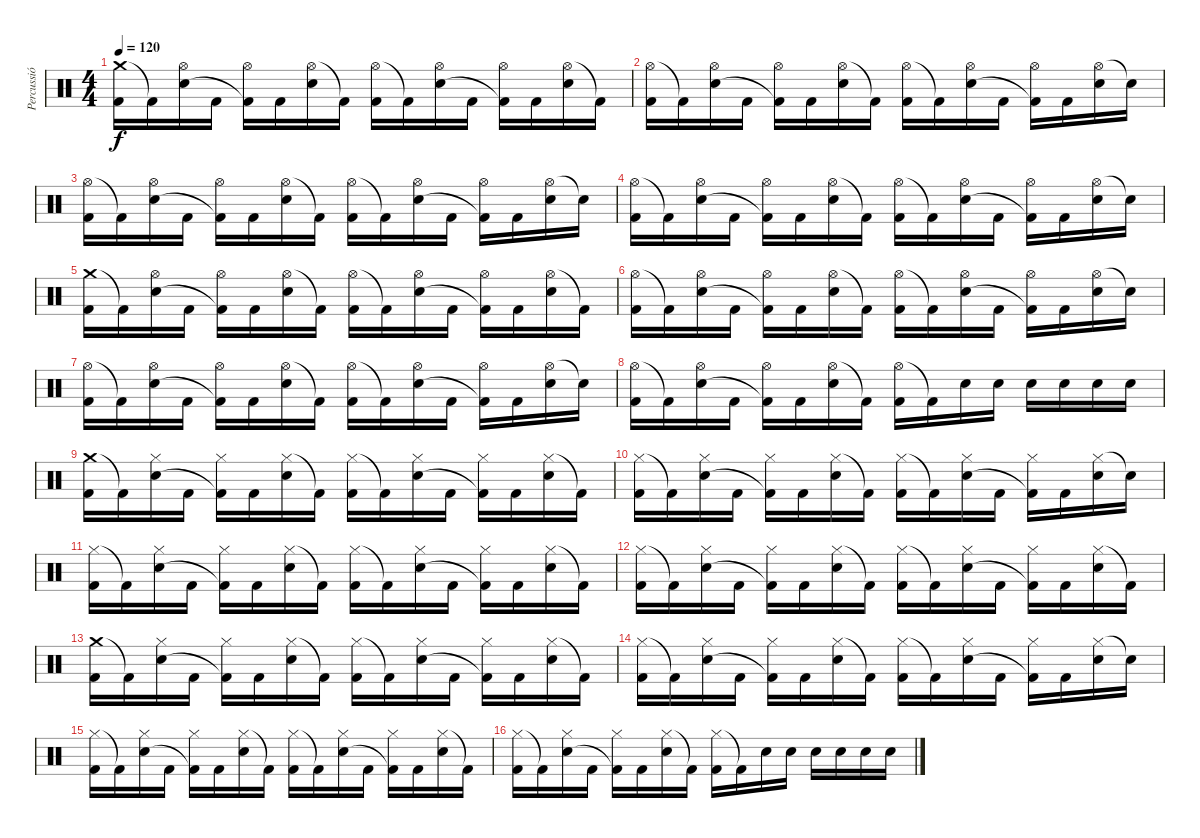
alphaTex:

\track ("Percussió" "Percussió") {instrument percussion}
\staff {score}
\articulation defaults
\ts (4 4)
\tempo 120
\clef neutral
\ks c
("Crash medium (hit)" "Kick (hit) 2").16{dy f} "Kick (hit) 2"{t}.16 ("Hi-Hat (open)" "Electric Snare (hit)").16 "Kick (hit) 2".16 ("Hi-Hat (open)" "Kick (hit) 2"{t}).16 "Kick (hit) 2".16 ("Hi-Hat (open)" "Electric Snare (hit)").16 "Kick (hit) 2"{t}.16 ("Hi-Hat (open)" "Kick (hit) 2").16 "Kick (hit) 2"{t}.16 ("Hi-Hat (open)" "Electric Snare (hit)").16 "Kick (hit) 2".16 ("Hi-Hat (open)" "Kick (hit) 2"{t}).16 "Kick (hit) 2".16 ("Hi-Hat (open)" "Electric Snare (hit)").16 "Kick (hit) 2"{t}.16 |
("Hi-Hat (open)" "Kick (hit) 2").16 "Kick (hit) 2"{t}.16 ("Hi-Hat (open)" "Electric Snare (hit)").16 "Kick (hit) 2".16 ("Hi-Hat (open)" "Kick (hit) 2"{t}).16 "Kick (hit) 2".16 ("Hi-Hat (open)" "Electric Snare (hit)").16 "Kick (hit) 2"{t}.16 ("Hi-Hat (open)" "Kick (hit) 2").16 "Kick (hit) 2"{t}.16 ("Hi-Hat (open)" "Electric Snare (hit)").16 "Kick (hit) 2".16 ("Hi-Hat (open)" "Kick (hit) 2"{t}).16 "Kick (hit) 2".16 ("Hi-Hat (open)" "Electric Snare (hit)").16 "Snare (hit)"{t}.16 |
("Hi-Hat (open)" "Kick (hit) 2").16 "Kick (hit) 2"{t}.16 ("Hi-Hat (open)" "Electric Snare (hit)").16 "Kick (hit) 2".16 ("Hi-Hat (open)" "Kick (hit) 2"{t}).16 "Kick (hit) 2".16 ("Hi-Hat (open)" "Electric Snare (hit)").16 "Kick (hit) 2"{t}.16 ("Hi-Hat (open)" "Kick (hit) 2").16 "Kick (hit) 2"{t}.16 ("Hi-Hat (open)" "Electric Snare (hit)").16 "Kick (hit) 2".16 ("Hi-Hat (open)" "Kick (hit) 2"{t}).16 "Kick (hit) 2".16 ("Hi-Hat (open)" "Electric Snare (hit)").16 "Snare (hit)"{t}.16 |
("Hi-Hat (open)" "Kick (hit) 2").16 "Kick (hit) 2"{t}.16 ("Hi-Hat (open)" "Electric Snare (hit)").16 "Kick (hit) 2".16 ("Hi-Hat (open)" "Kick (hit) 2"{t}).16 "Kick (hit) 2".16 ("Hi-Hat (open)" "Electric Snare (hit)").16 "Kick (hit) 2"{t}.16 ("Hi-Hat (open)" "Kick (hit) 2").16 "Kick (hit) 2"{t}.16 ("Hi-Hat (open)" "Electric Snare (hit)").16 "Kick (hit) 2".16 ("Hi-Hat (open)" "Kick (hit) 2"{t}).16 "Kick (hit) 2".16 ("Hi-Hat (open)" "Electric Snare (hit)").16 "Snare (hit)"{t}.16 |
("Crash medium (hit)" "Kick (hit) 2").16 "Kick (hit) 2"{t}.16 ("Hi-Hat (open)" "Electric Snare (hit)").16 "Kick (hit) 2".16 ("Hi-Hat (open)" "Kick (hit) 2"{t}).16 "Kick (hit) 2".16 ("Hi-Hat (open)" "Electric Snare (hit)").16 "Kick (hit) 2"{t}.16 ("Hi-Hat (open)" "Kick (hit) 2").16 "Kick (hit) 2"{t}.16 ("Hi-Hat (open)" "Electric Snare (hit)").16 "Kick (hit) 2".16 ("Hi-Hat (open)" "Kick (hit) 2"{t}).16 "Kick (hit) 2".16 ("Hi-Hat (open)" "Electric Snare (hit)").16 "Kick (hit) 2"{t}.16 |
("Hi-Hat (open)" "Kick (hit) 2").16 "Kick (hit) 2"{t}.16 ("Hi-Hat (open)" "Electric Snare (hit)").16 "Kick (hit) 2".16 ("Hi-Hat (open)" "Kick (hit) 2"{t}).16 "Kick (hit) 2".16 ("Hi-Hat (open)" "Electric Snare (hit)").16 "Kick (hit) 2"{t}.16 ("Hi-Hat (open)" "Kick (hit) 2").16 "Kick (hit) 2"{t}.16 ("Hi-Hat (open)" "Electric Snare (hit)").16 "Kick (hit) 2".16 ("Hi-Hat (open)" "Kick (hit) 2"{t}).16 "Kick (hit) 2".16 ("Hi-Hat (open)" "Electric Snare (hit)").16 "Snare (hit)"{t}.16 |
("Hi-Hat (open)" "Kick (hit) 2").16 "Kick (hit) 2"{t}.16 ("Hi-Hat (open)" "Electric Snare (hit)").16 "Kick (hit) 2".16 ("Hi-Hat (open)" "Kick (hit) 2"{t}).16 "Kick (hit) 2".16 ("Hi-Hat (open)" "Electric Snare (hit)").16 "Kick (hit) 2"{t}.16 ("Hi-Hat (open)" "Kick (hit) 2").16 "Kick (hit) 2"{t}.16 ("Hi-Hat (open)" "Electric Snare (hit)").16 "Kick (hit) 2".16 ("Hi-Hat (open)" "Kick (hit) 2"{t}).16 "Kick (hit) 2".16 ("Hi-Hat (open)" "Electric Snare (hit)").16 "Snare (hit)"{t}.16 |
("Hi-Hat (open)" "Kick (hit) 2").16 "Kick (hit) 2"{t}.16 ("Hi-Hat (open)" "Electric Snare (hit)").16 "Kick (hit) 2".16 ("Hi-Hat (open)" "Kick (hit) 2"{t}).16 "Kick (hit) 2".16 ("Hi-Hat (open)" "Electric Snare (hit)").16 "Kick (hit) 2"{t}.16 ("Hi-Hat (open)" "Kick (hit) 2").16 "Kick (hit) 2"{t}.16 "Electric Snare (hit)".16 "Electric Snare (hit)".16 "Electric Snare (hit)".16 "Electric Snare (hit)".16 "Electric Snare (hit)".16 "Electric Snare (hit)".16 |
("Crash medium (hit)" "Kick (hit) 2").16 "Kick (hit) 2"{t}.16 ("Hi-Hat (closed)" "Electric Snare (hit)").16 "Kick (hit) 2".16 ("Hi-Hat (closed)" "Kick (hit) 2"{t}).16 "Kick (hit) 2".16 ("Hi-Hat (closed)" "Electric Snare (hit)").16 "Kick (hit) 2"{t}.16 ("Hi-Hat (closed)" "Kick (hit) 2").16 "Kick (hit) 2"{t}.16 ("Hi-Hat (closed)" "Electric Snare (hit)").16 "Kick (hit) 2".16 ("Hi-Hat (closed)" "Kick (hit) 2"{t}).16 "Kick (hit) 2".16 ("Hi-Hat (closed)" "Electric Snare (hit)").16 "Kick (hit) 2"{t}.16 |
("Hi-Hat (closed)" "Kick (hit) 2").16 "Kick (hit) 2"{t}.16 ("Hi-Hat (closed)" "Electric Snare (hit)").16 "Kick (hit) 2".16 ("Hi-Hat (closed)" "Kick (hit) 2"{t}).16 "Kick (hit) 2".16 ("Hi-Hat (closed)" "Electric Snare (hit)").16 "Kick (hit) 2"{t}.16 ("Hi-Hat (closed)" "Kick (hit) 2").16 "Kick (hit) 2"{t}.16 ("Hi-Hat (closed)" "Electric Snare (hit)").16 "Kick (hit) 2".16 ("Hi-Hat (closed)" "Kick (hit) 2"{t}).16 "Kick (hit) 2".16 ("Hi-Hat (closed)" "Electric Snare (hit)").16 "Snare (hit)"{t}.16 |
("Hi-Hat (closed)" "Kick (hit) 2").16 "Kick (hit) 2"{t}.16 ("Hi-Hat (closed)" "Electric Snare (hit)").16 "Kick (hit) 2".16 ("Hi-Hat (closed)" "Kick (hit) 2"{t}).16 "Kick (hit) 2".16 ("Hi-Hat (closed)" "Electric Snare (hit)").16 "Kick (hit) 2"{t}.16 ("Hi-Hat (closed)" "Kick (hit) 2").16 "Kick (hit) 2"{t}.16 ("Hi-Hat (closed)" "Electric Snare (hit)").16 "Kick (hit) 2".16 ("Hi-Hat (closed)" "Kick (hit) 2"{t}).16 "Kick (hit) 2".16 ("Hi-Hat (closed)" "Electric Snare (hit)").16 "Kick (hit) 2"{t}.16 |
("Hi-Hat (closed)" "Kick (hit) 2").16 "Kick (hit) 2"{t}.16 ("Hi-Hat (closed)" "Electric Snare (hit)").16 "Kick (hit) 2".16 ("Hi-Hat (closed)" "Kick (hit) 2"{t}).16 "Kick (hit) 2".16 ("Hi-Hat (closed)" "Electric Snare (hit)").16 "Kick (hit) 2"{t}.16 ("Hi-Hat (closed)" "Kick (hit) 2").16 "Kick (hit) 2"{t}.16 ("Hi-Hat (closed)" "Electric Snare (hit)").16 "Kick (hit) 2".16 ("Hi-Hat (closed)" "Kick (hit) 2"{t}).16 "Kick (hit) 2".16 ("Hi-Hat (closed)" "Electric Snare (hit)").16 "Kick (hit) 2"{t}.16 |
("Crash medium (hit)" "Kick (hit) 2").16 "Kick (hit) 2"{t}.16 ("Hi-Hat (closed)" "Electric Snare (hit)").16 "Kick (hit) 2".16 ("Hi-Hat (closed)" "Kick (hit) 2"{t}).16 "Kick (hit) 2".16 ("Hi-Hat (closed)" "Electric Snare (hit)").16 "Kick (hit) 2"{t}.16 ("Hi-Hat (closed)" "Kick (hit) 2").16 "Kick (hit) 2"{t}.16 ("Hi-Hat (closed)" "Electric Snare (hit)").16 "Kick (hit) 2".16 ("Hi-Hat (closed)" "Kick (hit) 2"{t}).16 "Kick (hit) 2".16 ("Hi-Hat (closed)" "Electric Snare (hit)").16 "Kick (hit) 2"{t}.16 |
("Hi-Hat (closed)" "Kick (hit) 2").16 "Kick (hit) 2"{t}.16 ("Hi-Hat (closed)" "Electric Snare (hit)").16 "Kick (hit) 2".16 ("Hi-Hat (closed)" "Kick (hit) 2"{t}).16 "Kick (hit) 2".16 ("Hi-Hat (closed)" "Electric Snare (hit)").16 "Kick (hit) 2"{t}.16 ("Hi-Hat (closed)" "Kick (hit) 2").16 "Kick (hit) 2"{t}.16 ("Hi-Hat (closed)" "Electric Snare (hit)").16 "Kick (hit) 2".16 ("Hi-Hat (closed)" "Kick (hit) 2"{t}).16 "Kick (hit) 2".16 ("Hi-Hat (closed)" "Electric Snare (hit)").16 "Snare (hit)"{t}.16 |
("Hi-Hat (closed)" "Kick (hit) 2").16 "Kick (hit) 2"{t}.16 ("Hi-Hat (closed)" "Electric Snare (hit)").16 "Kick (hit) 2".16 ("Hi-Hat (closed)" "Kick (hit) 2"{t}).16 "Kick (hit) 2".16 ("Hi-Hat (closed)" "Electric Snare (hit)").16 "Kick (hit) 2"{t}.16 ("Hi-Hat (closed)" "Kick (hit) 2").16 "Kick (hit) 2"{t}.16 ("Hi-Hat (closed)" "Electric Snare (hit)").16 "Kick (hit) 2".16 ("Hi-Hat (closed)" "Kick (hit) 2"{t}).16 "Kick (hit) 2".16 ("Hi-Hat (closed)" "Electric Snare (hit)").16 "Kick (hit) 2"{t}.16 |
("Hi-Hat (closed)" "Kick (hit) 2").16 "Kick (hit) 2"{t}.16 ("Hi-Hat (closed)" "Electric Snare (hit)").16 "Kick (hit) 2".16 ("Hi-Hat (closed)" "Kick (hit) 2"{t}).16 "Kick (hit) 2".16 ("Hi-Hat (closed)" "Electric Snare (hit)").16 "Kick (hit) 2"{t}.16 ("Hi-Hat (closed)" "Kick (hit) 2").16 "Kick (hit) 2"{t}.16 "Electric Snare (hit)".16 "Electric Snare (hit)".16 "Electric Snare (hit)".16 "Electric Snare (hit)".16 "Electric Snare (hit)".16 "Electric Snare (hit)".16
